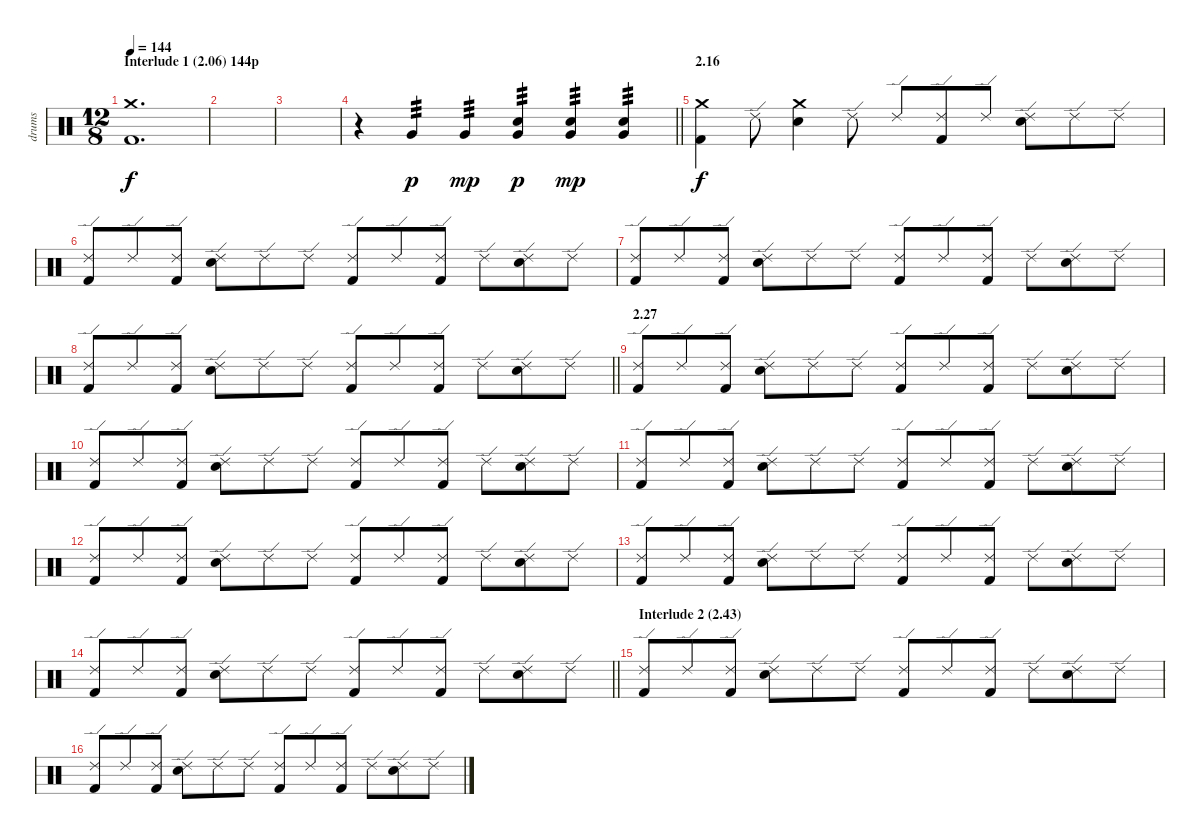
\track ("drums" "drums") {instrument percussion}
\staff {score}
\articulation defaults
\ts (12 8)
\section ("" "Interlude 1 (2.06) 144p")
\tempo 144
\clef neutral
\ks c
("Crash medium (hit)" "Kick (hit) 2").1{d dy f} |
|
|
\barLineRight lightlight
r.4 "Very Low Tom (hit)".4{tp 3 dy p} "Very Low Tom (hit)".4{tp 3 dy mp} ("Very Low Tom (hit)" "Electric Snare (hit)").4{tp 3 dy p} ("Very Low Tom (hit)" "Electric Snare (hit)").4{tp 3 dy mp} ("Very Low Tom (hit)" "Electric Snare (hit)").4{tp 3} |
\section ("" "2.16")
("Crash medium (hit)" "Kick (hit) 2").4{dy f} "Ride (edge) 2".8 ("Crash medium (hit)" "Electric Snare (hit)").4 "Ride (edge) 2".8 "Ride (edge) 2".8 ("Ride (edge) 2" "Kick (hit) 2").8 "Ride (edge) 2".8 ("Ride (edge) 2" "Electric Snare (hit)").8 "Ride (edge) 2".8 "Ride (edge) 2".8 |
("Ride (edge) 2" "Kick (hit) 2").8 "Ride (edge) 2".8 ("Ride (edge) 2" "Kick (hit) 2").8 ("Ride (edge) 2" "Electric Snare (hit)").8 "Ride (edge) 2".8 "Ride (edge) 2".8 ("Ride (edge) 2" "Kick (hit) 2").8 "Ride (edge) 2".8 ("Ride (edge) 2" "Kick (hit) 2").8 "Ride (edge) 2".8 ("Ride (edge) 2" "Electric Snare (hit)").8 "Ride (edge) 2".8 |
("Ride (edge) 2" "Kick (hit) 2").8 "Ride (edge) 2".8 ("Ride (edge) 2" "Kick (hit) 2").8 ("Ride (edge) 2" "Electric Snare (hit)").8 "Ride (edge) 2".8 "Ride (edge) 2".8 ("Ride (edge) 2" "Kick (hit) 2").8 "Ride (edge) 2".8 ("Ride (edge) 2" "Kick (hit) 2").8 "Ride (edge) 2".8 ("Ride (edge) 2" "Electric Snare (hit)").8 "Ride (edge) 2".8 |
\barLineRight lightlight
("Ride (edge) 2" "Kick (hit) 2").8 "Ride (edge) 2".8 ("Ride (edge) 2" "Kick (hit) 2").8 ("Ride (edge) 2" "Electric Snare (hit)").8 "Ride (edge) 2".8 "Ride (edge) 2".8 ("Ride (edge) 2" "Kick (hit) 2").8 "Ride (edge) 2".8 ("Ride (edge) 2" "Kick (hit) 2").8 "Ride (edge) 2".8 ("Ride (edge) 2" "Electric Snare (hit)").8 "Ride (edge) 2".8 |
\section ("" "2.27")
("Ride (edge) 2" "Kick (hit) 2").8 "Ride (edge) 2".8 ("Ride (edge) 2" "Kick (hit) 2").8 ("Ride (edge) 2" "Electric Snare (hit)").8 "Ride (edge) 2".8 "Ride (edge) 2".8 ("Ride (edge) 2" "Kick (hit) 2").8 "Ride (edge) 2".8 ("Ride (edge) 2" "Kick (hit) 2").8 "Ride (edge) 2".8 ("Ride (edge) 2" "Electric Snare (hit)").8 "Ride (edge) 2".8 |
("Ride (edge) 2" "Kick (hit) 2").8 "Ride (edge) 2".8 ("Ride (edge) 2" "Kick (hit) 2").8 ("Ride (edge) 2" "Electric Snare (hit)").8 "Ride (edge) 2".8 "Ride (edge) 2".8 ("Ride (edge) 2" "Kick (hit) 2").8 "Ride (edge) 2".8 ("Ride (edge) 2" "Kick (hit) 2").8 "Ride (edge) 2".8 ("Ride (edge) 2" "Electric Snare (hit)").8 "Ride (edge) 2".8 |
("Ride (edge) 2" "Kick (hit) 2").8 "Ride (edge) 2".8 ("Ride (edge) 2" "Kick (hit) 2").8 ("Ride (edge) 2" "Electric Snare (hit)").8 "Ride (edge) 2".8 "Ride (edge) 2".8 ("Ride (edge) 2" "Kick (hit) 2").8 "Ride (edge) 2".8 ("Ride (edge) 2" "Kick (hit) 2").8 "Ride (edge) 2".8 ("Ride (edge) 2" "Electric Snare (hit)").8 "Ride (edge) 2".8 |
("Ride (edge) 2" "Kick (hit) 2").8 "Ride (edge) 2".8 ("Ride (edge) 2" "Kick (hit) 2").8 ("Ride (edge) 2" "Electric Snare (hit)").8 "Ride (edge) 2".8 "Ride (edge) 2".8 ("Ride (edge) 2" "Kick (hit) 2").8 "Ride (edge) 2".8 ("Ride (edge) 2" "Kick (hit) 2").8 "Ride (edge) 2".8 ("Ride (edge) 2" "Electric Snare (hit)").8 "Ride (edge) 2".8 |
("Ride (edge) 2" "Kick (hit) 2").8 "Ride (edge) 2".8 ("Ride (edge) 2" "Kick (hit) 2").8 ("Ride (edge) 2" "Electric Snare (hit)").8 "Ride (edge) 2".8 "Ride (edge) 2".8 ("Ride (edge) 2" "Kick (hit) 2").8 "Ride (edge) 2".8 ("Ride (edge) 2" "Kick (hit) 2").8 "Ride (edge) 2".8 ("Ride (edge) 2" "Electric Snare (hit)").8 "Ride (edge) 2".8 |
\barLineRight lightlight
("Ride (edge) 2" "Kick (hit) 2").8 "Ride (edge) 2".8 ("Ride (edge) 2" "Kick (hit) 2").8 ("Ride (edge) 2" "Electric Snare (hit)").8 "Ride (edge) 2".8 "Ride (edge) 2".8 ("Ride (edge) 2" "Kick (hit) 2").8 "Ride (edge) 2".8 ("Ride (edge) 2" "Kick (hit) 2").8 "Ride (edge) 2".8 ("Ride (edge) 2" "Electric Snare (hit)").8 "Ride (edge) 2".8 |
\section ("" "Interlude 2 (2.43)")
("Ride (edge) 2" "Kick (hit) 2").8 "Ride (edge) 2".8 ("Ride (edge) 2" "Kick (hit) 2").8 ("Ride (edge) 2" "Electric Snare (hit)").8 "Ride (edge) 2".8 "Ride (edge) 2".8 ("Ride (edge) 2" "Kick (hit) 2").8 "Ride (edge) 2".8 ("Ride (edge) 2" "Kick (hit) 2").8 "Ride (edge) 2".8 ("Ride (edge) 2" "Electric Snare (hit)").8 "Ride (edge) 2".8 |
("Ride (edge) 2" "Kick (hit) 2").8 "Ride (edge) 2".8 ("Ride (edge) 2" "Kick (hit) 2").8 ("Ride (edge) 2" "Electric Snare (hit)").8 "Ride (edge) 2".8 "Ride (edge) 2".8 ("Ride (edge) 2" "Kick (hit) 2").8 "Ride (edge) 2".8 ("Ride (edge) 2" "Kick (hit) 2").8 "Ride (edge) 2".8 ("Ride (edge) 2" "Electric Snare (hit)").8 "Ride (edge) 2".8
